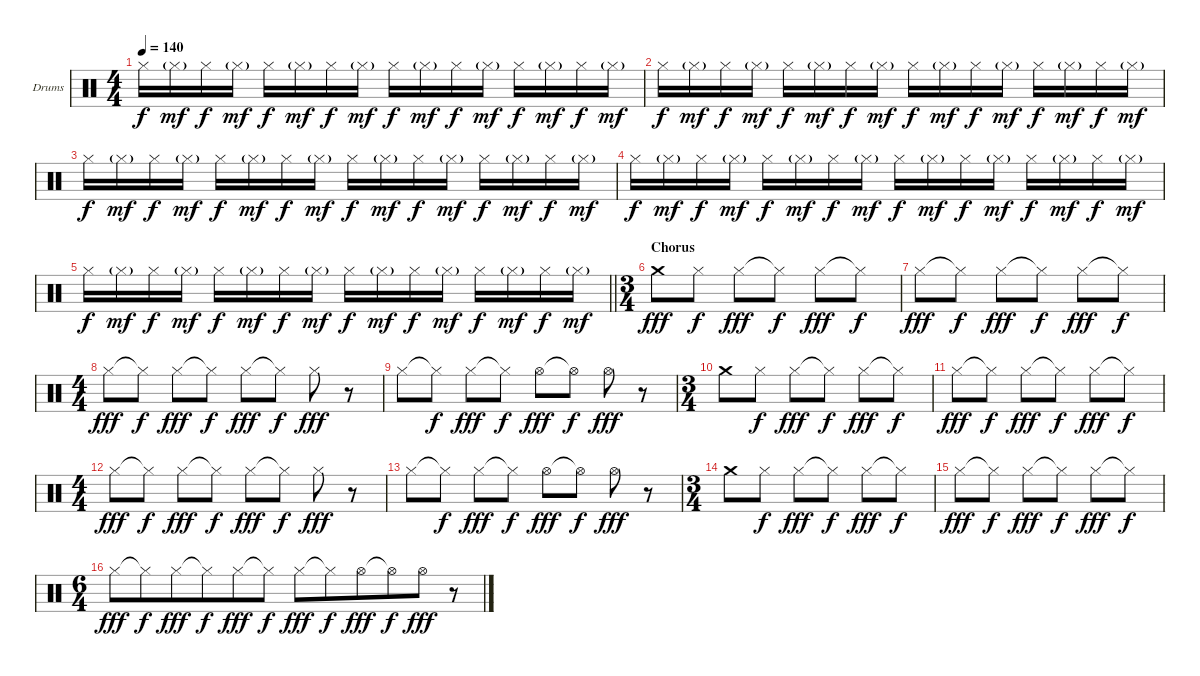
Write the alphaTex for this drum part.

\bracketExtendMode groupsimilarinstruments
\firstSystemTrackNameOrientation horizontal
\otherSystemsTrackNameOrientation horizontal
\track ("Drumkit" "Drums") {instrument percussion}
\staff {score}
\articulation defaults
\ts (4 4)
\tempo 140
\clef neutral
\ks c "Hi-Hat (closed)".16{dy f} "Hi-Hat (closed)"{g}.16{dy mf} "Hi-Hat (closed)".16{dy f} "Hi-Hat (closed)"{g}.16{dy mf} "Hi-Hat (closed)".16{dy f} "Hi-Hat (closed)"{g}.16{dy mf} "Hi-Hat (closed)".16{dy f} "Hi-Hat (closed)"{g}.16{dy mf} "Hi-Hat (closed)".16{dy f} "Hi-Hat (closed)"{g}.16{dy mf} "Hi-Hat (closed)".16{dy f} "Hi-Hat (closed)"{g}.16{dy mf} "Hi-Hat (closed)".16{dy f} "Hi-Hat (closed)"{g}.16{dy mf} "Hi-Hat (closed)".16{dy f} "Hi-Hat (closed)"{g}.16{dy mf}
|
"Hi-Hat (closed)".16{dy f} "Hi-Hat (closed)"{g}.16{dy mf} "Hi-Hat (closed)".16{dy f} "Hi-Hat (closed)"{g}.16{dy mf} "Hi-Hat (closed)".16{dy f} "Hi-Hat (closed)"{g}.16{dy mf} "Hi-Hat (closed)".16{dy f} "Hi-Hat (closed)"{g}.16{dy mf} "Hi-Hat (closed)".16{dy f} "Hi-Hat (closed)"{g}.16{dy mf} "Hi-Hat (closed)".16{dy f} "Hi-Hat (closed)"{g}.16{dy mf} "Hi-Hat (closed)".16{dy f} "Hi-Hat (closed)"{g}.16{dy mf} "Hi-Hat (closed)".16{dy f} "Hi-Hat (closed)"{g}.16{dy mf} |
"Hi-Hat (closed)".16{dy f} "Hi-Hat (closed)"{g}.16{dy mf} "Hi-Hat (closed)".16{dy f} "Hi-Hat (closed)"{g}.16{dy mf} "Hi-Hat (closed)".16{dy f} "Hi-Hat (closed)"{g}.16{dy mf} "Hi-Hat (closed)".16{dy f} "Hi-Hat (closed)"{g}.16{dy mf} "Hi-Hat (closed)".16{dy f} "Hi-Hat (closed)"{g}.16{dy mf} "Hi-Hat (closed)".16{dy f} "Hi-Hat (closed)"{g}.16{dy mf} "Hi-Hat (closed)".16{dy f} "Hi-Hat (closed)"{g}.16{dy mf} "Hi-Hat (closed)".16{dy f} "Hi-Hat (closed)"{g}.16{dy mf} |
"Hi-Hat (closed)".16{dy f} "Hi-Hat (closed)"{g}.16{dy mf} "Hi-Hat (closed)".16{dy f} "Hi-Hat (closed)"{g}.16{dy mf} "Hi-Hat (closed)".16{dy f} "Hi-Hat (closed)"{g}.16{dy mf} "Hi-Hat (closed)".16{dy f} "Hi-Hat (closed)"{g}.16{dy mf} "Hi-Hat (closed)".16{dy f} "Hi-Hat (closed)"{g}.16{dy mf} "Hi-Hat (closed)".16{dy f} "Hi-Hat (closed)"{g}.16{dy mf} "Hi-Hat (closed)".16{dy f} "Hi-Hat (closed)"{g}.16{dy mf} "Hi-Hat (closed)".16{dy f} "Hi-Hat (closed)"{g}.16{dy mf} |
\barLineRight lightlight "Hi-Hat (closed)".16{dy f} "Hi-Hat (closed)"{g}.16{dy mf} "Hi-Hat (closed)".16{dy f} "Hi-Hat (closed)"{g}.16{dy mf} "Hi-Hat (closed)".16{dy f} "Hi-Hat (closed)"{g}.16{dy mf} "Hi-Hat (closed)".16{dy f} "Hi-Hat (closed)"{g}.16{dy mf} "Hi-Hat (closed)".16{dy f} "Hi-Hat (closed)"{g}.16{dy mf} "Hi-Hat (closed)".16{dy f} "Hi-Hat (closed)"{g}.16{dy mf} "Hi-Hat (closed)".16{dy f} "Hi-Hat (closed)"{g}.16{dy mf} "Hi-Hat (closed)".16{dy f} "Hi-Hat (closed)"{g}.16{dy mf}
|
\ts (3 4)
\beaming (8 2 2 2)
\section ("" "Chorus")
"Crash medium (hit)".8{dy fff} "Hi-Hat (closed)".8{dy f} "Hi-Hat (closed)".8{dy fff} "Hi-Hat (closed)"{t}.8{dy f} "Hi-Hat (closed)".8{dy fff} "Hi-Hat (closed)"{t}.8{dy f} |
"Hi-Hat (closed)".8{dy fff} "Hi-Hat (closed)"{t}.8{dy f} "Hi-Hat (closed)".8{dy fff} "Hi-Hat (closed)"{t}.8{dy f} "Hi-Hat (closed)".8{dy fff} "Hi-Hat (closed)"{t}.8{dy f} |
\ts (4 4)
\beaming (8 2 2 2 2)
"Hi-Hat (closed)".8{dy fff} "Hi-Hat (closed)"{t}.8{dy f} "Hi-Hat (closed)".8{dy fff} "Hi-Hat (closed)"{t}.8{dy f} "Hi-Hat (closed)".8{dy fff} "Hi-Hat (closed)"{t}.8{dy f} "Hi-Hat (closed)".8{dy fff} r.8 |
"Hi-Hat (closed)".8 "Hi-Hat (closed)"{t}.8{dy f} "Hi-Hat (closed)".8{dy fff} "Hi-Hat (closed)"{t}.8{dy f} "Hi-Hat (open)".8{dy fff} "Hi-Hat (open)"{t}.8{dy f} "Hi-Hat (open)".8{dy fff} r.8 |
\ts (3 4)
\beaming (8 2 2 2 2)
"Crash medium (hit)".8 "Hi-Hat (closed)".8{dy f} "Hi-Hat (closed)".8{dy fff} "Hi-Hat (closed)"{t}.8{dy f} "Hi-Hat (closed)".8{dy fff} "Hi-Hat (closed)"{t}.8{dy f} |
"Hi-Hat (closed)".8{dy fff} "Hi-Hat (closed)"{t}.8{dy f} "Hi-Hat (closed)".8{dy fff} "Hi-Hat (closed)"{t}.8{dy f} "Hi-Hat (closed)".8{dy fff} "Hi-Hat (closed)"{t}.8{dy f} |
\ts (4 4)
\beaming (8 2 2 2 2)
"Hi-Hat (closed)".8{dy fff} "Hi-Hat (closed)"{t}.8{dy f} "Hi-Hat (closed)".8{dy fff} "Hi-Hat (closed)"{t}.8{dy f} "Hi-Hat (closed)".8{dy fff} "Hi-Hat (closed)"{t}.8{dy f} "Hi-Hat (closed)".8{dy fff} r.8 |
"Hi-Hat (closed)".8 "Hi-Hat (closed)"{t}.8{dy f} "Hi-Hat (closed)".8{dy fff} "Hi-Hat (closed)"{t}.8{dy f} "Hi-Hat (open)".8{dy fff} "Hi-Hat (open)"{t}.8{dy f} "Hi-Hat (open)".8{dy fff} r.8 |
\ts (3 4)
\beaming (8 2 2 2 2)
"Crash medium (hit)".8 "Hi-Hat (closed)".8{dy f} "Hi-Hat (closed)".8{dy fff} "Hi-Hat (closed)"{t}.8{dy f} "Hi-Hat (closed)".8{dy fff} "Hi-Hat (closed)"{t}.8{dy f} |
\beaming (8 2 2 2)
"Hi-Hat (closed)".8{dy fff} "Hi-Hat (closed)"{t}.8{dy f} "Hi-Hat (closed)".8{dy fff} "Hi-Hat (closed)"{t}.8{dy f} "Hi-Hat (closed)".8{dy fff} "Hi-Hat (closed)"{t}.8{dy f} |
\ts (6 4)
\beaming (8 6 6)
"Hi-Hat (closed)".8{dy fff} "Hi-Hat (closed)"{t}.8{dy f} "Hi-Hat (closed)".8{dy fff} "Hi-Hat (closed)"{t}.8{dy f} "Hi-Hat (closed)".8{dy fff} "Hi-Hat (closed)"{t}.8{dy f} "Hi-Hat (closed)".8{dy fff} "Hi-Hat (closed)"{t}.8{dy f} "Hi-Hat (open)".8{dy fff} "Hi-Hat (open)"{t}.8{dy f} "Hi-Hat (open)".8{dy fff} r.8
